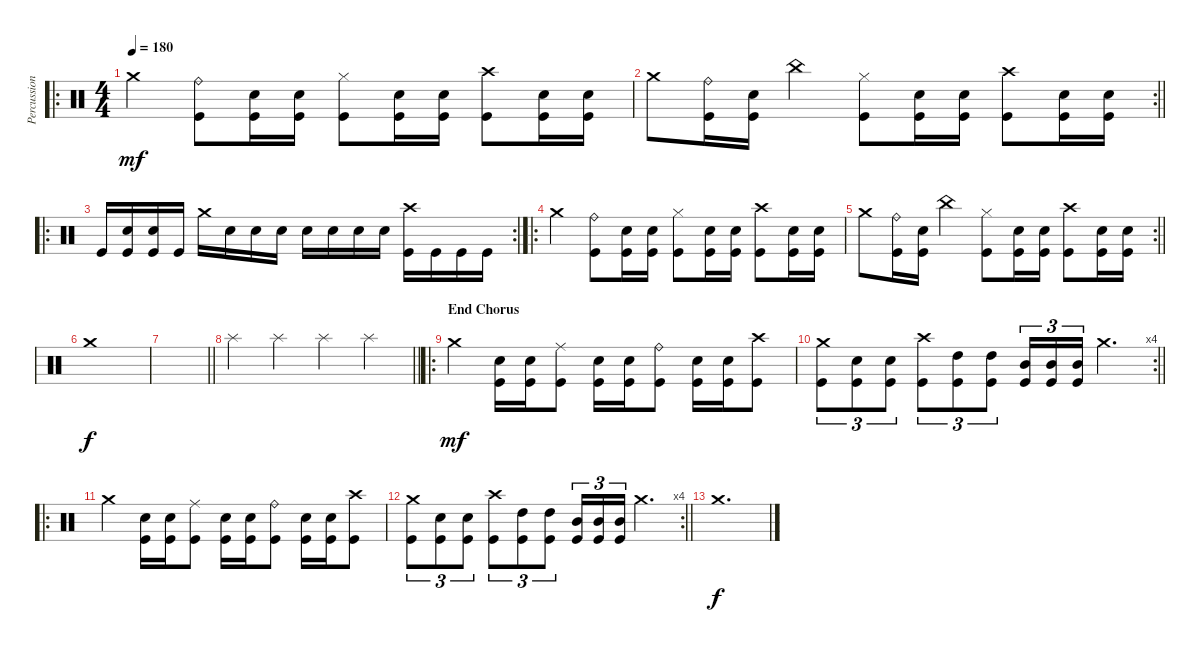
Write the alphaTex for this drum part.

\track ("Percussion" "Percussion") {instrument percussion}
\staff {score}
\articulation defaults
\ro
\ts (4 4)
\tempo 180
\clef neutral
\ks c "Crash medium (hit)".4{dy mf}
("Ride (bell)" "Kick (hit)").8 ("Electric Snare (hit)" "Kick (hit)").16 ("Electric Snare (hit)" "Kick (hit)").16 ("Hi-Hat (closed)" "Kick (hit)").8 ("Electric Snare (hit)" "Kick (hit)").16 ("Electric Snare (hit)" "Kick (hit)").16 ("Crash high (hit)" "Kick (hit)").8 ("Electric Snare (hit)" "Kick (hit)").16 ("Electric Snare (hit)" "Kick (hit)").16 |
\rc 2
\barLineRight lightlight "Crash medium (hit)".8
("Ride (bell)" "Kick (hit)").16 ("Electric Snare (hit)" "Kick (hit)").16 "China (hit)".4 ("Hi-Hat (closed)" "Kick (hit)").8 ("Electric Snare (hit)" "Kick (hit)").16 ("Electric Snare (hit)" "Kick (hit)").16 ("Crash high (hit)" "Kick (hit)").8 ("Electric Snare (hit)" "Kick (hit)").16 ("Electric Snare (hit)" "Kick (hit)").16 |
\ro
\rc 2 "Kick (hit)".16
("Electric Snare (hit)" "Kick (hit)").16 ("Electric Snare (hit)" "Kick (hit)").16 "Kick (hit)".16 "Crash medium (hit)".16 "Electric Snare (hit)".16 "Electric Snare (hit)".16 "Electric Snare (hit)".16 "Electric Snare (hit)".16 "Electric Snare (hit)".16 "Electric Snare (hit)".16 "Electric Snare (hit)".16 ("Crash high (hit)" "Kick (hit)").16 "Kick (hit)".16 "Kick (hit)".16 "Kick (hit)".16 |
\ro "Crash medium (hit)".4
("Ride (bell)" "Kick (hit)").8 ("Electric Snare (hit)" "Kick (hit)").16 ("Electric Snare (hit)" "Kick (hit)").16 ("Hi-Hat (closed)" "Kick (hit)").8 ("Electric Snare (hit)" "Kick (hit)").16 ("Electric Snare (hit)" "Kick (hit)").16 ("Crash high (hit)" "Kick (hit)").8 ("Electric Snare (hit)" "Kick (hit)").16 ("Electric Snare (hit)" "Kick (hit)").16 |
\rc 2
\barLineRight lightlight "Crash medium (hit)".8
("Ride (bell)" "Kick (hit)").16 ("Electric Snare (hit)" "Kick (hit)").16 "China (hit)".4 ("Hi-Hat (closed)" "Kick (hit)").8 ("Electric Snare (hit)" "Kick (hit)").16 ("Electric Snare (hit)" "Kick (hit)").16 ("Crash high (hit)" "Kick (hit)").8 ("Electric Snare (hit)" "Kick (hit)").16 ("Electric Snare (hit)" "Kick (hit)").16 |
"Crash medium (hit)".1{dy f} |
\barLineRight lightlight
|
\barLineRight lightlight "Splash (hit)".4 "Splash (hit)".4 "Splash (hit)".4 "Splash (hit)".4
|
\ro
\section ("" "End Chorus")
"Crash medium (hit)".4{dy mf} ("Kick (hit)" "Electric Snare (hit)").16 ("Kick (hit)" "Electric Snare (hit)").16 ("Ride (middle)" "Kick (hit)").8 ("Kick (hit)" "Electric Snare (hit)").16 ("Kick (hit)" "Electric Snare (hit)").16 ("Ride (bell)" "Kick (hit)").8 ("Kick (hit)" "Electric Snare (hit)").16 ("Kick (hit)" "Electric Snare (hit)").16 ("Crash high (hit)" "Kick (hit)").8 |
\rc 4
\barLineRight lightlight
("Crash medium (hit)" "Kick (hit)").8{tu (3 2)} ("Electric Snare (hit)" "Kick (hit)").8{tu (3 2)} ("Electric Snare (hit)" "Kick (hit)").8{tu (3 2)} ("Crash high (hit)" "Kick (hit)").8{tu (3 2)} ("High Tom (hit)" "Kick (hit)").8{tu (3 2)} ("High Tom (hit)" "Kick (hit)").8{tu (3 2)} ("Mid Tom (hit)" "Kick (hit)").16{tu (3 2)} ("Mid Tom (hit)" "Kick (hit)").16{tu (3 2)} ("Mid Tom (hit)" "Kick (hit)").16{tu (3 2)} "Crash medium (hit)".4{d} |
\ro "Crash medium (hit)".4
("Kick (hit)" "Electric Snare (hit)").16 ("Kick (hit)" "Electric Snare (hit)").16 ("Ride (middle)" "Kick (hit)").8 ("Kick (hit)" "Electric Snare (hit)").16 ("Kick (hit)" "Electric Snare (hit)").16 ("Ride (bell)" "Kick (hit)").8 ("Kick (hit)" "Electric Snare (hit)").16 ("Kick (hit)" "Electric Snare (hit)").16 ("Crash high (hit)" "Kick (hit)").8 |
\rc 4
\barLineRight lightlight
("Crash medium (hit)" "Kick (hit)").8{tu (3 2)} ("Electric Snare (hit)" "Kick (hit)").8{tu (3 2)} ("Electric Snare (hit)" "Kick (hit)").8{tu (3 2)} ("Crash high (hit)" "Kick (hit)").8{tu (3 2)} ("High Tom (hit)" "Kick (hit)").8{tu (3 2)} ("High Tom (hit)" "Kick (hit)").8{tu (3 2)} ("Mid Tom (hit)" "Kick (hit)").16{tu (3 2)} ("Mid Tom (hit)" "Kick (hit)").16{tu (3 2)} ("Mid Tom (hit)" "Kick (hit)").16{tu (3 2)} "Crash medium (hit)".4{d} |
"Crash medium (hit)".1{d dy f}
